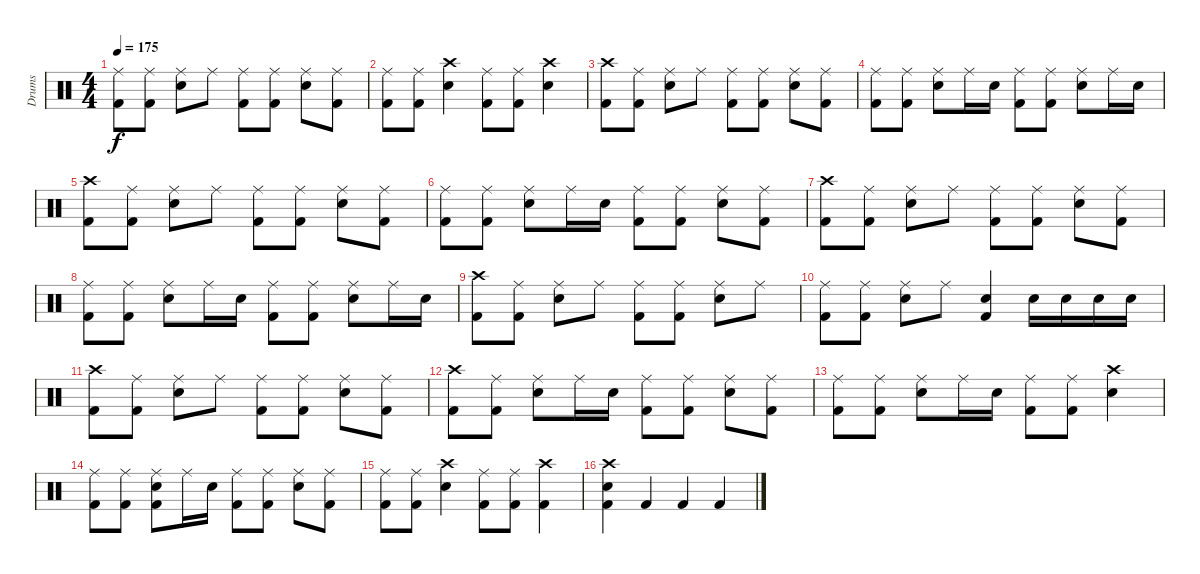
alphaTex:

\track ("Drums" "Drums") {instrument percussion}
\staff {score}
\articulation defaults
\ts (4 4)
\tempo 175
\clef neutral
\ks c
("Ride (middle)" "Kick (hit) 2").8{dy f} ("Ride (middle)" "Kick (hit) 2").8 ("Ride (middle)" "Snare (hit) 2").8 "Ride (middle)".8 ("Ride (middle)" "Kick (hit) 2").8 ("Ride (middle)" "Kick (hit) 2").8 ("Ride (middle)" "Snare (hit) 2").8 ("Ride (middle)" "Kick (hit) 2").8 |
("Ride (middle)" "Kick (hit) 2").8 ("Ride (middle)" "Kick (hit) 2").8 ("Crash high (hit)" "Snare (hit) 2").4 ("Ride (middle)" "Kick (hit) 2").8 ("Ride (middle)" "Kick (hit) 2").8 ("Crash high (hit)" "Snare (hit) 2").4 |
("Crash high (hit)" "Kick (hit) 2").8 ("Ride (middle)" "Kick (hit) 2").8 ("Ride (middle)" "Snare (hit) 2").8 "Ride (middle)".8 ("Ride (middle)" "Kick (hit) 2").8 ("Ride (middle)" "Kick (hit) 2").8 ("Ride (middle)" "Snare (hit) 2").8 ("Ride (middle)" "Kick (hit) 2").8 |
("Ride (middle)" "Kick (hit) 2").8 ("Ride (middle)" "Kick (hit) 2").8 ("Ride (middle)" "Snare (hit) 2").8 "Ride (middle)".16 "Snare (hit) 2".16 ("Ride (middle)" "Kick (hit) 2").8 ("Ride (middle)" "Kick (hit) 2").8 ("Ride (middle)" "Snare (hit) 2").8 "Ride (middle)".16 "Snare (hit) 2".16 |
("Crash high (hit)" "Kick (hit) 2").8 ("Ride (middle)" "Kick (hit) 2").8 ("Ride (middle)" "Snare (hit) 2").8 "Ride (middle)".8 ("Ride (middle)" "Kick (hit) 2").8 ("Ride (middle)" "Kick (hit) 2").8 ("Ride (middle)" "Snare (hit) 2").8 ("Ride (middle)" "Kick (hit) 2").8 |
("Ride (middle)" "Kick (hit) 2").8 ("Ride (middle)" "Kick (hit) 2").8 ("Ride (middle)" "Snare (hit) 2").8 "Ride (middle)".16 "Snare (hit) 2".16 ("Ride (middle)" "Kick (hit) 2").8 ("Ride (middle)" "Kick (hit) 2").8 ("Ride (middle)" "Snare (hit) 2").8 ("Ride (middle)" "Kick (hit) 2").8 |
("Crash high (hit)" "Kick (hit) 2").8 ("Ride (middle)" "Kick (hit) 2").8 ("Ride (middle)" "Snare (hit) 2").8 "Ride (middle)".8 ("Ride (middle)" "Kick (hit) 2").8 ("Ride (middle)" "Kick (hit) 2").8 ("Ride (middle)" "Snare (hit) 2").8 ("Ride (middle)" "Kick (hit) 2").8 |
("Ride (middle)" "Kick (hit) 2").8 ("Ride (middle)" "Kick (hit) 2").8 ("Ride (middle)" "Snare (hit) 2").8 "Ride (middle)".16 "Snare (hit) 2".16 ("Ride (middle)" "Kick (hit) 2").8 ("Ride (middle)" "Kick (hit) 2").8 ("Ride (middle)" "Snare (hit) 2").8 "Ride (middle)".16 "Snare (hit) 2".16 |
("Crash high (hit)" "Kick (hit) 2").8 ("Ride (middle)" "Kick (hit) 2").8 ("Ride (middle)" "Snare (hit) 2").8 "Ride (middle)".8 ("Ride (middle)" "Kick (hit) 2").8 ("Ride (middle)" "Kick (hit) 2").8 ("Ride (middle)" "Snare (hit) 2").8 "Ride (middle)".8 |
("Ride (middle)" "Kick (hit) 2").8 ("Ride (middle)" "Kick (hit) 2").8 ("Ride (middle)" "Snare (hit) 2").8 "Ride (middle)".8 ("Snare (hit) 2" "Kick (hit) 2").4 "Snare (hit) 2".16 "Snare (hit) 2".16 "Snare (hit) 2".16 "Snare (hit) 2".16 |
("Crash high (hit)" "Kick (hit) 2").8 ("Ride (middle)" "Kick (hit) 2").8 ("Ride (middle)" "Snare (hit) 2").8 "Ride (middle)".8 ("Ride (middle)" "Kick (hit) 2").8 ("Ride (middle)" "Kick (hit) 2").8 ("Ride (middle)" "Snare (hit) 2").8 ("Ride (middle)" "Kick (hit) 2").8 |
("Crash high (hit)" "Kick (hit) 2").8 ("Ride (middle)" "Kick (hit) 2").8 ("Ride (middle)" "Snare (hit) 2").8 "Ride (middle)".16 "Snare (hit) 2".16 ("Ride (middle)" "Kick (hit) 2").8 ("Ride (middle)" "Kick (hit) 2").8 ("Ride (middle)" "Snare (hit) 2").8 ("Ride (middle)" "Kick (hit) 2").8 |
("Ride (middle)" "Kick (hit) 2").8 ("Ride (middle)" "Kick (hit) 2").8 ("Ride (middle)" "Snare (hit) 2").8 "Ride (middle)".16 "Snare (hit) 2".16 ("Ride (middle)" "Kick (hit) 2").8 ("Ride (middle)" "Kick (hit) 2").8 ("Crash high (hit)" "Snare (hit) 2").4 |
("Ride (middle)" "Kick (hit) 2").8 ("Ride (middle)" "Kick (hit) 2").8 ("Ride (middle)" "Snare (hit) 2" "Kick (hit) 2").8 "Ride (middle)".16 "Snare (hit) 2".16 ("Ride (middle)" "Kick (hit) 2").8 ("Ride (middle)" "Kick (hit) 2").8 ("Ride (middle)" "Snare (hit) 2").8 ("Ride (middle)" "Kick (hit) 2").8 |
("Ride (middle)" "Kick (hit) 2").8 ("Ride (middle)" "Kick (hit) 2").8 ("Crash high (hit)" "Snare (hit) 2").4 ("Ride (middle)" "Kick (hit) 2").8 ("Ride (middle)" "Kick (hit) 2").8 ("Crash high (hit)" "Kick (hit) 2").4 |
("Crash high (hit)" "Snare (hit) 2" "Kick (hit) 2").4 "Kick (hit) 2".4 "Kick (hit) 2".4 "Kick (hit) 2".4
